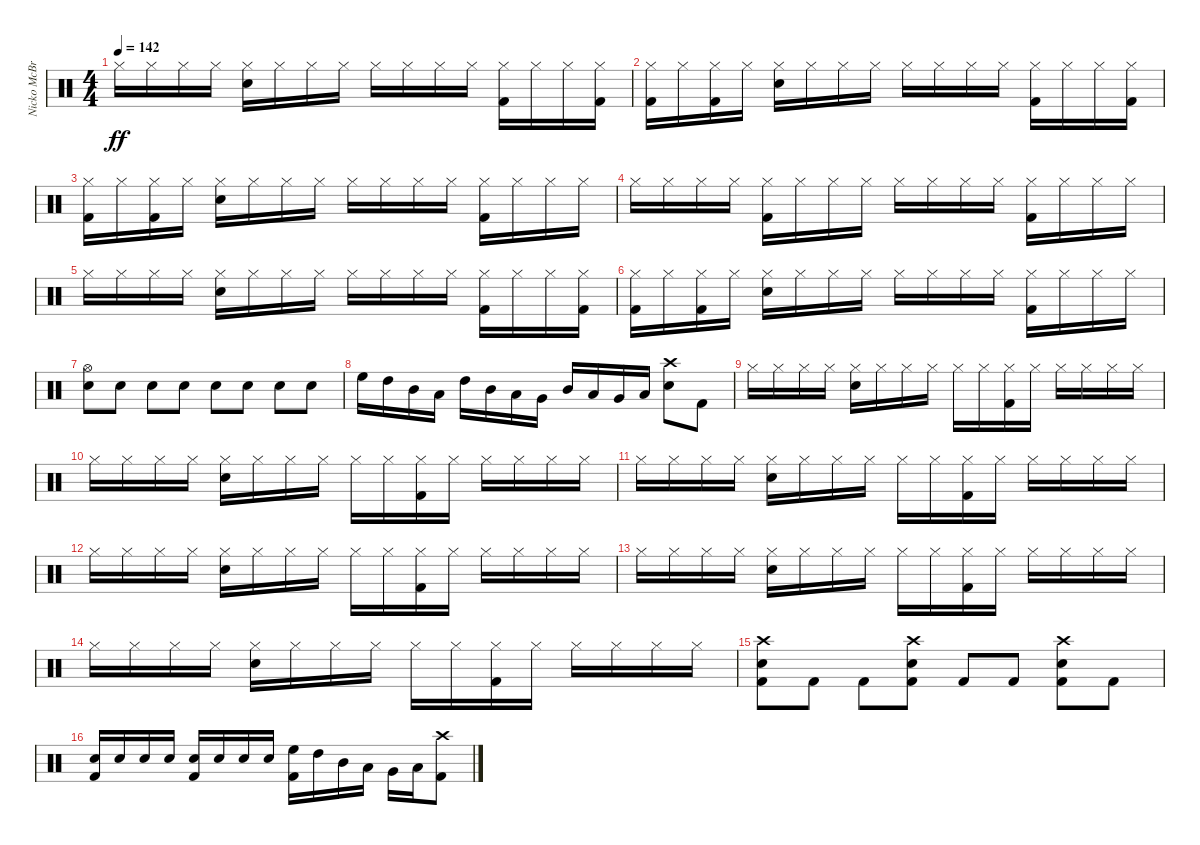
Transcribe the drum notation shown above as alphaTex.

\track ("Nicko McBrain" "Nicko McBr") {instrument percussion}
\staff {score}
\articulation defaults
\ts (4 4)
\tempo 142
\clef neutral
\ks c "Hi-Hat (closed)".16{dy ff} "Hi-Hat (closed)".16 "Hi-Hat (closed)".16 "Hi-Hat (closed)".16
("Snare (hit) 2" "Hi-Hat (closed)").16 "Hi-Hat (closed)".16 "Hi-Hat (closed)".16 "Hi-Hat (closed)".16 "Hi-Hat (closed)".16 "Hi-Hat (closed)".16 "Hi-Hat (closed)".16 "Hi-Hat (closed)".16 ("Kick (hit) 2" "Hi-Hat (closed)").16 "Hi-Hat (closed)".16 "Hi-Hat (closed)".16 ("Kick (hit) 2" "Hi-Hat (closed)").16 |
("Kick (hit) 2" "Hi-Hat (closed)").16 "Hi-Hat (closed)".16 ("Kick (hit) 2" "Hi-Hat (closed)").16 "Hi-Hat (closed)".16 ("Snare (hit) 2" "Hi-Hat (closed)").16 "Hi-Hat (closed)".16 "Hi-Hat (closed)".16 "Hi-Hat (closed)".16 "Hi-Hat (closed)".16 "Hi-Hat (closed)".16 "Hi-Hat (closed)".16 "Hi-Hat (closed)".16 ("Kick (hit) 2" "Hi-Hat (closed)").16 "Hi-Hat (closed)".16 "Hi-Hat (closed)".16 ("Kick (hit) 2" "Hi-Hat (closed)").16 |
("Kick (hit) 2" "Hi-Hat (closed)").16 "Hi-Hat (closed)".16 ("Kick (hit) 2" "Hi-Hat (closed)").16 "Hi-Hat (closed)".16 ("Snare (hit) 2" "Hi-Hat (closed)").16 "Hi-Hat (closed)".16 "Hi-Hat (closed)".16 "Hi-Hat (closed)".16 "Hi-Hat (closed)".16 "Hi-Hat (closed)".16 "Hi-Hat (closed)".16 "Hi-Hat (closed)".16 ("Kick (hit) 2" "Hi-Hat (closed)").16 "Hi-Hat (closed)".16 "Hi-Hat (closed)".16 "Hi-Hat (closed)".16 |
"Hi-Hat (closed)".16 "Hi-Hat (closed)".16 "Hi-Hat (closed)".16 "Hi-Hat (closed)".16 ("Kick (hit) 2" "Hi-Hat (closed)").16 "Hi-Hat (closed)".16 "Hi-Hat (closed)".16 "Hi-Hat (closed)".16 "Hi-Hat (closed)".16 "Hi-Hat (closed)".16 "Hi-Hat (closed)".16 "Hi-Hat (closed)".16 ("Kick (hit) 2" "Hi-Hat (closed)").16 "Hi-Hat (closed)".16 "Hi-Hat (closed)".16 "Hi-Hat (closed)".16 |
"Hi-Hat (closed)".16 "Hi-Hat (closed)".16 "Hi-Hat (closed)".16 "Hi-Hat (closed)".16 ("Snare (hit) 2" "Hi-Hat (closed)").16 "Hi-Hat (closed)".16 "Hi-Hat (closed)".16 "Hi-Hat (closed)".16 "Hi-Hat (closed)".16 "Hi-Hat (closed)".16 "Hi-Hat (closed)".16 "Hi-Hat (closed)".16 ("Kick (hit) 2" "Hi-Hat (closed)").16 "Hi-Hat (closed)".16 "Hi-Hat (closed)".16 ("Kick (hit) 2" "Hi-Hat (closed)").16 |
("Kick (hit) 2" "Hi-Hat (closed)").16 "Hi-Hat (closed)".16 ("Kick (hit) 2" "Hi-Hat (closed)").16 "Hi-Hat (closed)".16 ("Snare (hit) 2" "Hi-Hat (closed)").16 "Hi-Hat (closed)".16 "Hi-Hat (closed)".16 "Hi-Hat (closed)".16 "Hi-Hat (closed)".16 "Hi-Hat (closed)".16 "Hi-Hat (closed)".16 "Hi-Hat (closed)".16 ("Kick (hit) 2" "Hi-Hat (closed)").16 "Hi-Hat (closed)".16 "Hi-Hat (closed)".16 "Hi-Hat (closed)".16 |
("Snare (hit) 2" "Hi-Hat (open)").8 "Snare (hit) 2".8{volume 0} "Snare (hit) 2".8{volume 4} "Snare (hit) 2".8{volume 8} "Snare (hit) 2".8{volume 12} "Snare (hit) 2".8{volume 16} "Snare (hit) 2".8 "Snare (hit) 2".8 |
"High Floor Tom (hit)".16 "High Tom (hit)".16 "Mid Tom (hit)".16 "Low Tom (hit)".16 "High Tom (hit)".16 "Mid Tom (hit)".16 "Low Tom (hit)".16 "Very Low Tom (hit)".16 "Mid Tom (hit)".16 "Low Tom (hit)".16 "Very Low Tom (hit)".16 "Low Floor Tom (hit)".16 ("Snare (hit) 2" "Crash high (hit)").8 "Kick (hit) 2".8 |
"Hi-Hat (closed)".16 "Hi-Hat (closed)".16 "Hi-Hat (closed)".16 "Hi-Hat (closed)".16 ("Snare (hit) 2" "Hi-Hat (closed)").16 "Hi-Hat (closed)".16 "Hi-Hat (closed)".16 "Hi-Hat (closed)".16 "Hi-Hat (closed)".16 "Hi-Hat (closed)".16 ("Kick (hit) 2" "Hi-Hat (closed)").16 "Hi-Hat (closed)".16 "Hi-Hat (closed)".16 "Hi-Hat (closed)".16 "Hi-Hat (closed)".16 "Hi-Hat (closed)".16 |
"Hi-Hat (closed)".16 "Hi-Hat (closed)".16 "Hi-Hat (closed)".16 "Hi-Hat (closed)".16 ("Snare (hit) 2" "Hi-Hat (closed)").16 "Hi-Hat (closed)".16 "Hi-Hat (closed)".16 "Hi-Hat (closed)".16 "Hi-Hat (closed)".16 "Hi-Hat (closed)".16 ("Kick (hit) 2" "Hi-Hat (closed)").16 "Hi-Hat (closed)".16 "Hi-Hat (closed)".16 "Hi-Hat (closed)".16 "Hi-Hat (closed)".16 "Hi-Hat (closed)".16 |
"Hi-Hat (closed)".16 "Hi-Hat (closed)".16 "Hi-Hat (closed)".16 "Hi-Hat (closed)".16 ("Snare (hit) 2" "Hi-Hat (closed)").16 "Hi-Hat (closed)".16 "Hi-Hat (closed)".16 "Hi-Hat (closed)".16 "Hi-Hat (closed)".16 "Hi-Hat (closed)".16 ("Kick (hit) 2" "Hi-Hat (closed)").16 "Hi-Hat (closed)".16 "Hi-Hat (closed)".16 "Hi-Hat (closed)".16 "Hi-Hat (closed)".16 "Hi-Hat (closed)".16 |
"Hi-Hat (closed)".16 "Hi-Hat (closed)".16 "Hi-Hat (closed)".16 "Hi-Hat (closed)".16 ("Snare (hit) 2" "Hi-Hat (closed)").16 "Hi-Hat (closed)".16 "Hi-Hat (closed)".16 "Hi-Hat (closed)".16 "Hi-Hat (closed)".16 "Hi-Hat (closed)".16 ("Kick (hit) 2" "Hi-Hat (closed)").16 "Hi-Hat (closed)".16 "Hi-Hat (closed)".16 "Hi-Hat (closed)".16 "Hi-Hat (closed)".16 "Hi-Hat (closed)".16 |
"Hi-Hat (closed)".16 "Hi-Hat (closed)".16 "Hi-Hat (closed)".16 "Hi-Hat (closed)".16 ("Snare (hit) 2" "Hi-Hat (closed)").16 "Hi-Hat (closed)".16 "Hi-Hat (closed)".16 "Hi-Hat (closed)".16 "Hi-Hat (closed)".16 "Hi-Hat (closed)".16 ("Kick (hit) 2" "Hi-Hat (closed)").16 "Hi-Hat (closed)".16 "Hi-Hat (closed)".16 "Hi-Hat (closed)".16 "Hi-Hat (closed)".16 "Hi-Hat (closed)".16 |
"Hi-Hat (closed)".16 "Hi-Hat (closed)".16 "Hi-Hat (closed)".16 "Hi-Hat (closed)".16 ("Snare (hit) 2" "Hi-Hat (closed)").16 "Hi-Hat (closed)".16 "Hi-Hat (closed)".16 "Hi-Hat (closed)".16 "Hi-Hat (closed)".16 "Hi-Hat (closed)".16 ("Kick (hit) 2" "Hi-Hat (closed)").16 "Hi-Hat (closed)".16 "Hi-Hat (closed)".16 "Hi-Hat (closed)".16 "Hi-Hat (closed)".16 "Hi-Hat (closed)".16 |
("Kick (hit) 2" "Snare (hit) 2" "Crash high (hit)").8 "Kick (hit) 2".8 "Kick (hit) 2".8 ("Kick (hit) 2" "Snare (hit) 2" "Crash high (hit)").8 "Kick (hit) 2".8 "Kick (hit) 2".8 ("Kick (hit) 2" "Snare (hit) 2" "Crash high (hit)").8 "Kick (hit) 2".8 |
("Kick (hit) 2" "Snare (hit) 2").16 "Snare (hit) 2".16 "Snare (hit) 2".16 "Snare (hit) 2".16 ("Kick (hit) 2" "Snare (hit) 2").16 "Snare (hit) 2".16 "Snare (hit) 2".16 "Snare (hit) 2".16 ("Kick (hit) 2" "High Floor Tom (hit)").16 "High Tom (hit)".16 "Mid Tom (hit)".16 "Low Tom (hit)".16 "Very Low Tom (hit)".16 "Low Floor Tom (hit)".16 ("Kick (hit) 2" "Crash high (hit)").8
